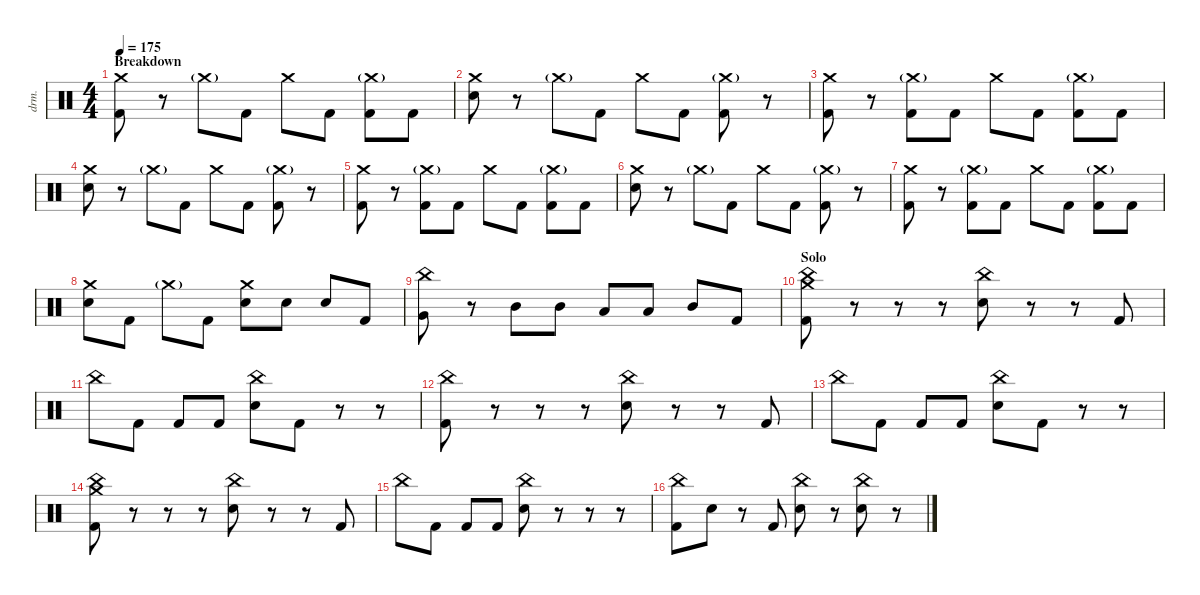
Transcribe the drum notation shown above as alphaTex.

\defaultSystemsLayout 4
\hideDynamics
\bracketExtendMode nobrackets
\track ("Drums - Mario" "drm.") {instrument percussion}
\staff {score}
\articulation defaults
\ts (4 4)
\section ("" "Breakdown")
\tempo 175
\clef neutral
\ks c
("Kick (hit) 2" "Crash medium (hit)").8{dy ff} r.8 "Crash medium (hit)"{g}.8 "Kick (hit) 2".8 "Crash medium (hit)".8 "Kick (hit) 2".8 ("Crash medium (hit)"{g} "Kick (hit) 2").8 "Kick (hit) 2".8 |
("Crash medium (hit)" "Snare (hit) 2").8 r.8 "Crash medium (hit)"{g}.8 "Kick (hit) 2".8 "Crash medium (hit)".8 "Kick (hit) 2".8 ("Crash medium (hit)"{g} "Kick (hit) 2").8 r.8 |
("Kick (hit) 2" "Crash medium (hit)").8 r.8 ("Crash medium (hit)"{g} "Kick (hit) 2").8 "Kick (hit) 2".8 "Crash medium (hit)".8 "Kick (hit) 2".8 ("Crash medium (hit)"{g} "Kick (hit) 2").8 "Kick (hit) 2".8 |
("Crash medium (hit)" "Snare (hit) 2").8 r.8 "Crash medium (hit)"{g}.8 "Kick (hit) 2".8 "Crash medium (hit)".8 "Kick (hit) 2".8 ("Crash medium (hit)"{g} "Kick (hit) 2").8 r.8 |
("Kick (hit) 2" "Crash medium (hit)").8 r.8 ("Crash medium (hit)"{g} "Kick (hit) 2").8 "Kick (hit) 2".8 "Crash medium (hit)".8 "Kick (hit) 2".8 ("Crash medium (hit)"{g} "Kick (hit) 2").8 "Kick (hit) 2".8 |
("Crash medium (hit)" "Snare (hit) 2").8 r.8 "Crash medium (hit)"{g}.8 "Kick (hit) 2".8 "Crash medium (hit)".8 "Kick (hit) 2".8 ("Crash medium (hit)"{g} "Kick (hit) 2").8 r.8 |
("Kick (hit) 2" "Crash medium (hit)").8 r.8 ("Crash medium (hit)"{g} "Kick (hit) 2").8 "Kick (hit) 2".8 "Crash medium (hit)".8 "Kick (hit) 2".8 ("Crash medium (hit)"{g} "Kick (hit) 2").8 "Kick (hit) 2".8 |
("Crash medium (hit)" "Snare (hit) 2").8 "Kick (hit) 2".8 "Crash medium (hit)"{g}.8 "Kick (hit) 2".8 ("Snare (hit) 2" "Crash medium (hit)").8 "Snare (hit) 2".8 "Snare (hit) 2".8 "Kick (hit) 2".8 |
("Very Low Tom (hit)" "China (hit)").8 r.8 "Mid Tom (hit)".8 "Mid Tom (hit)".8 "Low Tom (hit)".8 "Low Tom (hit)".8 "Mid Tom (hit)".8 "Kick (hit) 2".8 |
\section ("" "Solo")
("China (hit)" "Crash medium (hit)" "Kick (hit) 2").8 r.8 r.8 r.8 ("Snare (hit) 2" "China (hit)").8 r.8 r.8 "Kick (hit) 2".8 |
"China (hit)".8 "Kick (hit) 2".8 "Kick (hit) 2".8 "Kick (hit) 2".8 ("Snare (hit) 2" "China (hit)").8 "Kick (hit) 2".8 r.8 r.8 |
("China (hit)" "Kick (hit) 2").8 r.8 r.8 r.8 ("Snare (hit) 2" "China (hit)").8 r.8 r.8 "Kick (hit) 2".8 |
"China (hit)".8 "Kick (hit) 2".8 "Kick (hit) 2".8 "Kick (hit) 2".8 ("Snare (hit) 2" "China (hit)").8 "Kick (hit) 2".8 r.8 r.8 |
("China (hit)" "Kick (hit) 2" "Crash medium (hit)").8 r.8 r.8 r.8 ("Snare (hit) 2" "China (hit)").8 r.8 r.8 "Kick (hit) 2".8 |
"China (hit)".8 "Kick (hit) 2".8 "Kick (hit) 2".8 "Kick (hit) 2".8 ("Snare (hit) 2" "China (hit)").8 r.8 r.8 r.8 |
("China (hit)" "Kick (hit) 2").8 "Snare (hit) 2".8 r.8 "Kick (hit) 2".8 ("Snare (hit) 2" "China (hit)").8 r.8 ("Snare (hit) 2" "China (hit)").8 r.8
